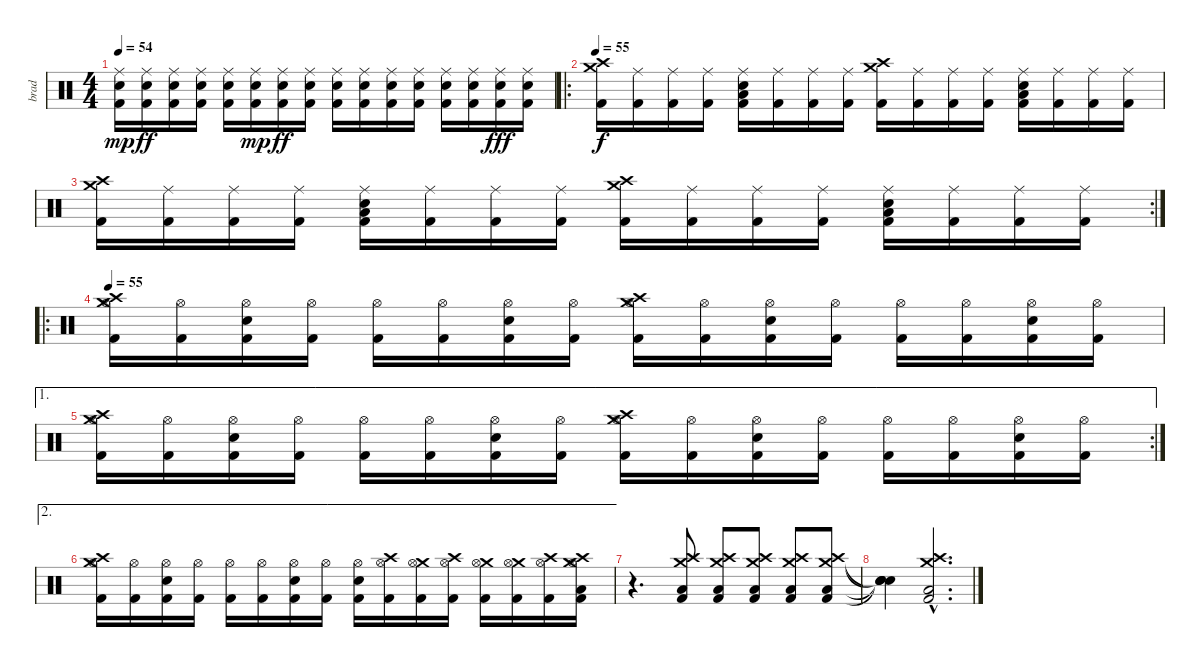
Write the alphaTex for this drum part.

\track ("brad" "brad") {instrument percussion}
\staff {score}
\articulation defaults
\ts (4 4)
\tempo 54
\clef neutral
\ks c
("Ride (middle)" "Electric Snare (hit)" "Kick (hit) 2").16{dy mp} ("Ride (middle)" "Electric Snare (hit)" "Kick (hit) 2").16{dy ff} ("Ride (middle)" "Electric Snare (hit)" "Kick (hit) 2").16 ("Ride (middle)" "Electric Snare (hit)" "Kick (hit) 2").16 ("Ride (middle)" "Electric Snare (hit)" "Kick (hit) 2").16 ("Ride (middle)" "Electric Snare (hit)" "Kick (hit) 2").16{dy mp} ("Ride (middle)" "Electric Snare (hit)" "Kick (hit) 2").16{dy ff} ("Ride (middle)" "Electric Snare (hit)" "Kick (hit) 2").16 ("Ride (middle)" "Electric Snare (hit)" "Kick (hit) 2").16 ("Ride (middle)" "Electric Snare (hit)" "Kick (hit) 2").16 ("Ride (middle)" "Electric Snare (hit)" "Kick (hit) 2").16 ("Ride (middle)" "Electric Snare (hit)" "Kick (hit) 2").16 ("Ride (middle)" "Electric Snare (hit)" "Kick (hit) 2").16 ("Ride (middle)" "Electric Snare (hit)" "Kick (hit) 2").16 ("Ride (middle)" "Electric Snare (hit)" "Kick (hit) 2").16{dy fff} ("Ride (middle)" "Electric Snare (hit)" "Kick (hit) 2").16 |
\ro
\tempo 55
("Crash medium (hit)" "Crash high (hit)" "Kick (hit) 2").16{dy f} ("Ride (middle)" "Kick (hit) 2").16 ("Ride (middle)" "Kick (hit) 2").16 ("Ride (middle)" "Kick (hit) 2").16 ("Ride (middle)" "Low Floor Tom (hit)" "Electric Snare (hit)" "Kick (hit) 2").16 ("Ride (middle)" "Kick (hit) 2").16 ("Ride (middle)" "Kick (hit) 2").16 ("Ride (middle)" "Kick (hit) 2").16 ("Crash medium (hit)" "Crash high (hit)" "Kick (hit) 2").16 ("Ride (middle)" "Kick (hit) 2").16 ("Ride (middle)" "Kick (hit) 2").16 ("Ride (middle)" "Kick (hit) 2").16 ("Ride (middle)" "Low Floor Tom (hit)" "Electric Snare (hit)" "Kick (hit) 2").16 ("Ride (middle)" "Kick (hit) 2").16 ("Ride (middle)" "Kick (hit) 2").16 ("Ride (middle)" "Kick (hit) 2").16 |
\rc 2
("Crash medium (hit)" "Crash high (hit)" "Kick (hit) 2").16 ("Ride (middle)" "Kick (hit) 2").16 ("Ride (middle)" "Kick (hit) 2").16 ("Ride (middle)" "Kick (hit) 2").16 ("Ride (middle)" "Low Floor Tom (hit)" "Electric Snare (hit)" "Kick (hit) 2").16 ("Ride (middle)" "Kick (hit) 2").16 ("Ride (middle)" "Kick (hit) 2").16 ("Ride (middle)" "Kick (hit) 2").16 ("Crash medium (hit)" "Crash high (hit)" "Kick (hit) 2").16 ("Ride (middle)" "Kick (hit) 2").16 ("Ride (middle)" "Kick (hit) 2").16 ("Ride (middle)" "Kick (hit) 2").16 ("Ride (middle)" "Low Floor Tom (hit)" "Electric Snare (hit)" "Kick (hit) 2").16 ("Ride (middle)" "Kick (hit) 2").16 ("Ride (middle)" "Kick (hit) 2").16 ("Ride (middle)" "Kick (hit) 2").16 |
\ro
\tempo 55
("Crash medium (hit)" "Crash high (hit)" "Hi-Hat (open)" "Kick (hit) 2").16 ("Hi-Hat (open)" "Kick (hit) 2").16 ("Hi-Hat (open)" "Electric Snare (hit)" "Kick (hit) 2").16 ("Hi-Hat (open)" "Kick (hit) 2").16 ("Hi-Hat (open)" "Kick (hit) 2").16 ("Hi-Hat (open)" "Kick (hit) 2").16 ("Hi-Hat (open)" "Electric Snare (hit)" "Kick (hit) 2").16 ("Hi-Hat (open)" "Kick (hit) 2").16 ("Crash medium (hit)" "Crash high (hit)" "Hi-Hat (open)" "Kick (hit) 2").16 ("Hi-Hat (open)" "Kick (hit) 2").16 ("Hi-Hat (open)" "Electric Snare (hit)" "Kick (hit) 2").16 ("Hi-Hat (open)" "Kick (hit) 2").16 ("Hi-Hat (open)" "Kick (hit) 2").16 ("Hi-Hat (open)" "Kick (hit) 2").16 ("Hi-Hat (open)" "Electric Snare (hit)" "Kick (hit) 2").16 ("Hi-Hat (open)" "Kick (hit) 2").16 |
\ae 1
\rc 2
("Crash medium (hit)" "Crash high (hit)" "Hi-Hat (open)" "Kick (hit) 2").16 ("Hi-Hat (open)" "Kick (hit) 2").16 ("Hi-Hat (open)" "Electric Snare (hit)" "Kick (hit) 2").16 ("Hi-Hat (open)" "Kick (hit) 2").16 ("Hi-Hat (open)" "Kick (hit) 2").16 ("Hi-Hat (open)" "Kick (hit) 2").16 ("Hi-Hat (open)" "Electric Snare (hit)" "Kick (hit) 2").16 ("Hi-Hat (open)" "Kick (hit) 2").16 ("Crash medium (hit)" "Crash high (hit)" "Hi-Hat (open)" "Kick (hit) 2").16 ("Hi-Hat (open)" "Kick (hit) 2").16 ("Hi-Hat (open)" "Electric Snare (hit)" "Kick (hit) 2").16 ("Hi-Hat (open)" "Kick (hit) 2").16 ("Hi-Hat (open)" "Kick (hit) 2").16 ("Hi-Hat (open)" "Kick (hit) 2").16 ("Hi-Hat (open)" "Electric Snare (hit)" "Kick (hit) 2").16 ("Hi-Hat (open)" "Kick (hit) 2").16 |
\ae 2
("Crash medium (hit)" "Crash high (hit)" "Hi-Hat (open)" "Kick (hit) 2").16 ("Hi-Hat (open)" "Kick (hit) 2").16 ("Hi-Hat (open)" "Electric Snare (hit)" "Kick (hit) 2").16 ("Hi-Hat (open)" "Kick (hit) 2").16 ("Hi-Hat (open)" "Kick (hit) 2").16 ("Hi-Hat (open)" "Kick (hit) 2").16 ("Hi-Hat (open)" "Electric Snare (hit)" "Kick (hit) 2").16 ("Hi-Hat (open)" "Kick (hit) 2").16 ("Hi-Hat (open)" "Electric Snare (hit)" "Kick (hit) 2").16 ("Crash high (hit)" "Hi-Hat (open)" "Kick (hit) 2").16 ("Crash medium (hit)" "Hi-Hat (open)" "Kick (hit) 2").16 ("Crash high (hit)" "Hi-Hat (open)" "Kick (hit) 2").16 ("Crash medium (hit)" "Hi-Hat (open)" "Kick (hit) 2").16 ("Crash medium (hit)" "Hi-Hat (open)" "Kick (hit) 2").16 ("Crash high (hit)" "Hi-Hat (open)" "Kick (hit) 2").16 ("Crash medium (hit)" "Crash high (hit)" "Hi-Hat (open)" "Low Floor Tom (hit)" "Kick (hit) 2").16 |
r.4{d} ("Crash high (hit)" "Crash medium (hit)" "Low Floor Tom (hit)" "Kick (hit) 2").8 ("Crash high (hit)" "Crash medium (hit)" "Low Floor Tom (hit)" "Kick (hit) 2").8 ("Crash high (hit)" "Crash medium (hit)" "Low Floor Tom (hit)" "Kick (hit) 2").8 ("Crash high (hit)" "Crash medium (hit)" "Low Floor Tom (hit)" "Kick (hit) 2").8 ("Crash high (hit)" "Crash medium (hit)" "Low Floor Tom (hit)" "Kick (hit) 2").8 |
("Snare (hit)"{t} "Snare (hit)"{t} "Snare (hit)"{t} "Snare (hit)"{t}).4 ("Crash high (hit)"{hac} "Crash medium (hit)"{hac} "Low Floor Tom (hit)"{hac} "Kick (hit) 2"{hac}).2{d}
